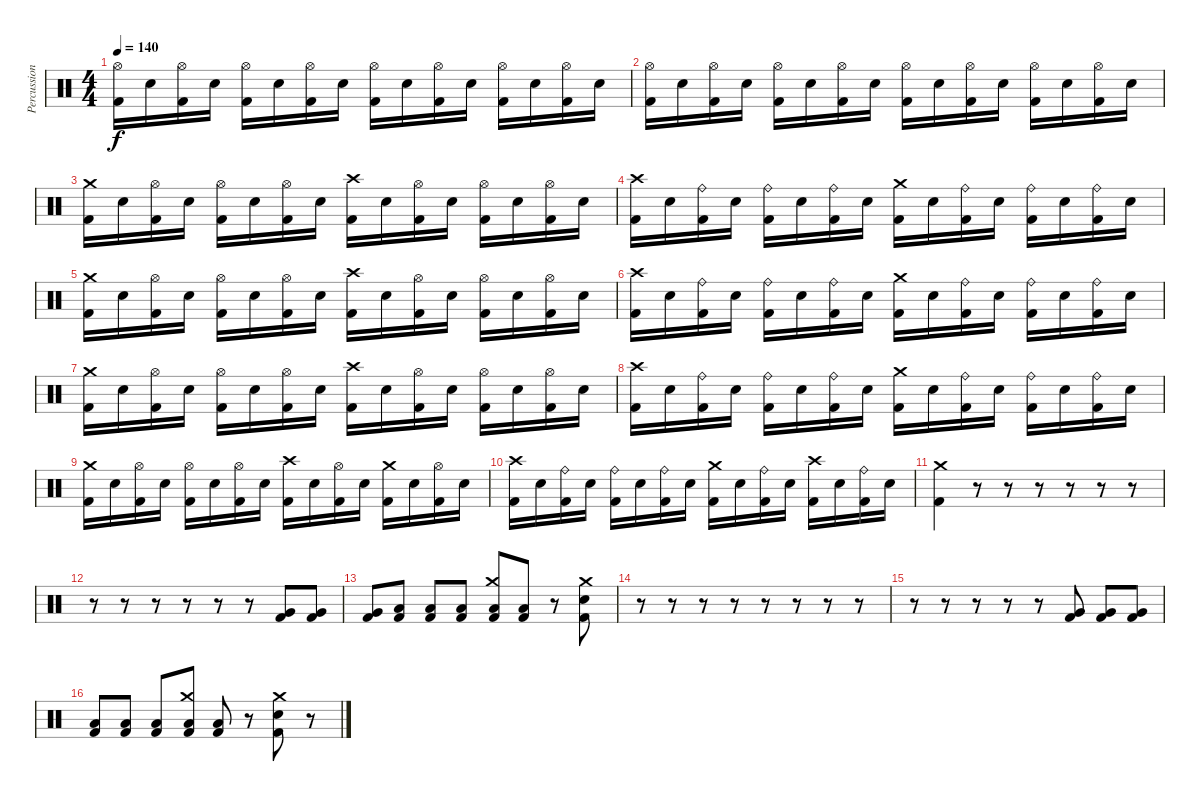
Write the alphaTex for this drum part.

\track ("Percussion" "Percussion") {instrument percussion}
\staff {score}
\articulation defaults
\ts (4 4)
\tempo 140
\clef neutral
\ks c
("Hi-Hat (open)" "Kick (hit) 2").16{dy f} "Electric Snare (hit)".16 ("Hi-Hat (open)" "Kick (hit) 2").16 "Electric Snare (hit)".16 ("Hi-Hat (open)" "Kick (hit) 2").16 "Electric Snare (hit)".16 ("Hi-Hat (open)" "Kick (hit) 2").16 "Electric Snare (hit)".16 ("Hi-Hat (open)" "Kick (hit) 2").16 "Electric Snare (hit)".16 ("Hi-Hat (open)" "Kick (hit) 2").16 "Electric Snare (hit)".16 ("Hi-Hat (open)" "Kick (hit) 2").16 "Electric Snare (hit)".16 ("Hi-Hat (open)" "Kick (hit) 2").16 "Electric Snare (hit)".16 |
("Hi-Hat (open)" "Kick (hit) 2").16 "Electric Snare (hit)".16 ("Hi-Hat (open)" "Kick (hit) 2").16 "Electric Snare (hit)".16 ("Hi-Hat (open)" "Kick (hit) 2").16 "Electric Snare (hit)".16 ("Hi-Hat (open)" "Kick (hit) 2").16 "Electric Snare (hit)".16 ("Hi-Hat (open)" "Kick (hit) 2").16 "Electric Snare (hit)".16 ("Hi-Hat (open)" "Kick (hit) 2").16 "Electric Snare (hit)".16 ("Hi-Hat (open)" "Kick (hit) 2").16 "Electric Snare (hit)".16 ("Hi-Hat (open)" "Kick (hit) 2").16 "Electric Snare (hit)".16 |
("Crash medium (hit)" "Kick (hit) 2").16 "Electric Snare (hit)".16 ("Hi-Hat (open)" "Kick (hit) 2").16 "Electric Snare (hit)".16 ("Hi-Hat (open)" "Kick (hit) 2").16 "Electric Snare (hit)".16 ("Hi-Hat (open)" "Kick (hit) 2").16 "Electric Snare (hit)".16 ("Crash high (hit)" "Kick (hit) 2").16 "Electric Snare (hit)".16 ("Hi-Hat (open)" "Kick (hit) 2").16 "Electric Snare (hit)".16 ("Hi-Hat (open)" "Kick (hit) 2").16 "Electric Snare (hit)".16 ("Hi-Hat (open)" "Kick (hit) 2").16 "Electric Snare (hit)".16 |
("Crash high (hit)" "Kick (hit) 2").16 "Electric Snare (hit)".16 ("Ride (bell)" "Kick (hit) 2").16 "Electric Snare (hit)".16 ("Ride (bell)" "Kick (hit) 2").16 "Electric Snare (hit)".16 ("Ride (bell)" "Kick (hit) 2").16 "Electric Snare (hit)".16 ("Crash medium (hit)" "Kick (hit) 2").16 "Electric Snare (hit)".16 ("Ride (bell)" "Kick (hit) 2").16 "Electric Snare (hit)".16 ("Ride (bell)" "Kick (hit) 2").16 "Electric Snare (hit)".16 ("Ride (bell)" "Kick (hit) 2").16 "Electric Snare (hit)".16 |
("Crash medium (hit)" "Kick (hit) 2").16 "Electric Snare (hit)".16 ("Hi-Hat (open)" "Kick (hit) 2").16 "Electric Snare (hit)".16 ("Hi-Hat (open)" "Kick (hit) 2").16 "Electric Snare (hit)".16 ("Hi-Hat (open)" "Kick (hit) 2").16 "Electric Snare (hit)".16 ("Crash high (hit)" "Kick (hit) 2").16 "Electric Snare (hit)".16 ("Hi-Hat (open)" "Kick (hit) 2").16 "Electric Snare (hit)".16 ("Hi-Hat (open)" "Kick (hit) 2").16 "Electric Snare (hit)".16 ("Hi-Hat (open)" "Kick (hit) 2").16 "Electric Snare (hit)".16 |
("Crash high (hit)" "Kick (hit) 2").16 "Electric Snare (hit)".16 ("Ride (bell)" "Kick (hit) 2").16 "Electric Snare (hit)".16 ("Ride (bell)" "Kick (hit) 2").16 "Electric Snare (hit)".16 ("Ride (bell)" "Kick (hit) 2").16 "Electric Snare (hit)".16 ("Crash medium (hit)" "Kick (hit) 2").16 "Electric Snare (hit)".16 ("Ride (bell)" "Kick (hit) 2").16 "Electric Snare (hit)".16 ("Ride (bell)" "Kick (hit) 2").16 "Electric Snare (hit)".16 ("Ride (bell)" "Kick (hit) 2").16 "Electric Snare (hit)".16 |
("Crash medium (hit)" "Kick (hit) 2").16 "Electric Snare (hit)".16 ("Hi-Hat (open)" "Kick (hit) 2").16 "Electric Snare (hit)".16 ("Hi-Hat (open)" "Kick (hit) 2").16 "Electric Snare (hit)".16 ("Hi-Hat (open)" "Kick (hit) 2").16 "Electric Snare (hit)".16 ("Crash high (hit)" "Kick (hit) 2").16 "Electric Snare (hit)".16 ("Hi-Hat (open)" "Kick (hit) 2").16 "Electric Snare (hit)".16 ("Hi-Hat (open)" "Kick (hit) 2").16 "Electric Snare (hit)".16 ("Hi-Hat (open)" "Kick (hit) 2").16 "Electric Snare (hit)".16 |
("Crash high (hit)" "Kick (hit) 2").16 "Electric Snare (hit)".16 ("Ride (bell)" "Kick (hit) 2").16 "Electric Snare (hit)".16 ("Ride (bell)" "Kick (hit) 2").16 "Electric Snare (hit)".16 ("Ride (bell)" "Kick (hit) 2").16 "Electric Snare (hit)".16 ("Crash medium (hit)" "Kick (hit) 2").16 "Electric Snare (hit)".16 ("Ride (bell)" "Kick (hit) 2").16 "Electric Snare (hit)".16 ("Ride (bell)" "Kick (hit) 2").16 "Electric Snare (hit)".16 ("Ride (bell)" "Kick (hit) 2").16 "Electric Snare (hit)".16 |
("Crash medium (hit)" "Kick (hit) 2").16 "Electric Snare (hit)".16 ("Hi-Hat (open)" "Kick (hit) 2").16 "Electric Snare (hit)".16 ("Hi-Hat (open)" "Kick (hit) 2").16 "Electric Snare (hit)".16 ("Hi-Hat (open)" "Kick (hit) 2").16 "Electric Snare (hit)".16 ("Crash high (hit)" "Kick (hit) 2").16 "Electric Snare (hit)".16 ("Hi-Hat (open)" "Kick (hit) 2").16 "Electric Snare (hit)".16 ("Crash medium (hit)" "Kick (hit) 2").16 "Electric Snare (hit)".16 ("Hi-Hat (open)" "Kick (hit) 2").16 "Electric Snare (hit)".16 |
("Crash high (hit)" "Kick (hit) 2").16 "Electric Snare (hit)".16 ("Ride (bell)" "Kick (hit) 2").16 "Electric Snare (hit)".16 ("Ride (bell)" "Kick (hit) 2").16 "Electric Snare (hit)".16 ("Ride (bell)" "Kick (hit) 2").16 "Electric Snare (hit)".16 ("Crash medium (hit)" "Kick (hit) 2").16 "Electric Snare (hit)".16 ("Ride (bell)" "Kick (hit) 2").16 "Electric Snare (hit)".16 ("Crash high (hit)" "Kick (hit) 2").16 "Electric Snare (hit)".16 ("Ride (bell)" "Kick (hit) 2").16 "Electric Snare (hit)".16 |
("Crash medium (hit)" "Kick (hit) 2").4 r.8 r.8 r.8 r.8 r.8 r.8 |
r.8 r.8 r.8 r.8 r.8 r.8 ("Very Low Tom (hit)" "Kick (hit) 2").8 ("Very Low Tom (hit)" "Kick (hit) 2").8 |
("Very Low Tom (hit)" "Kick (hit) 2").8 ("Low Tom (hit)" "Kick (hit) 2").8 ("Low Tom (hit)" "Kick (hit) 2").8 ("Low Tom (hit)" "Kick (hit) 2").8 ("Crash medium (hit)" "Low Tom (hit)" "Kick (hit) 2").8 ("Low Floor Tom (hit)" "Kick (hit) 2").8 r.8 ("Crash medium (hit)" "Electric Snare (hit)" "Kick (hit) 2").8 |
r.8 r.8 r.8 r.8 r.8 r.8 r.8 r.8 |
r.8 r.8 r.8 r.8 r.8 ("Very Low Tom (hit)" "Kick (hit) 2").8 ("Very Low Tom (hit)" "Kick (hit) 2").8 ("Very Low Tom (hit)" "Kick (hit) 2").8 |
("Low Tom (hit)" "Kick (hit) 2").8 ("Low Tom (hit)" "Kick (hit) 2").8 ("Low Tom (hit)" "Kick (hit) 2").8 ("Crash medium (hit)" "Low Tom (hit)" "Kick (hit) 2").8 ("Low Floor Tom (hit)" "Kick (hit) 2").8 r.8 ("Crash medium (hit)" "Electric Snare (hit)" "Kick (hit) 2").8 r.8
